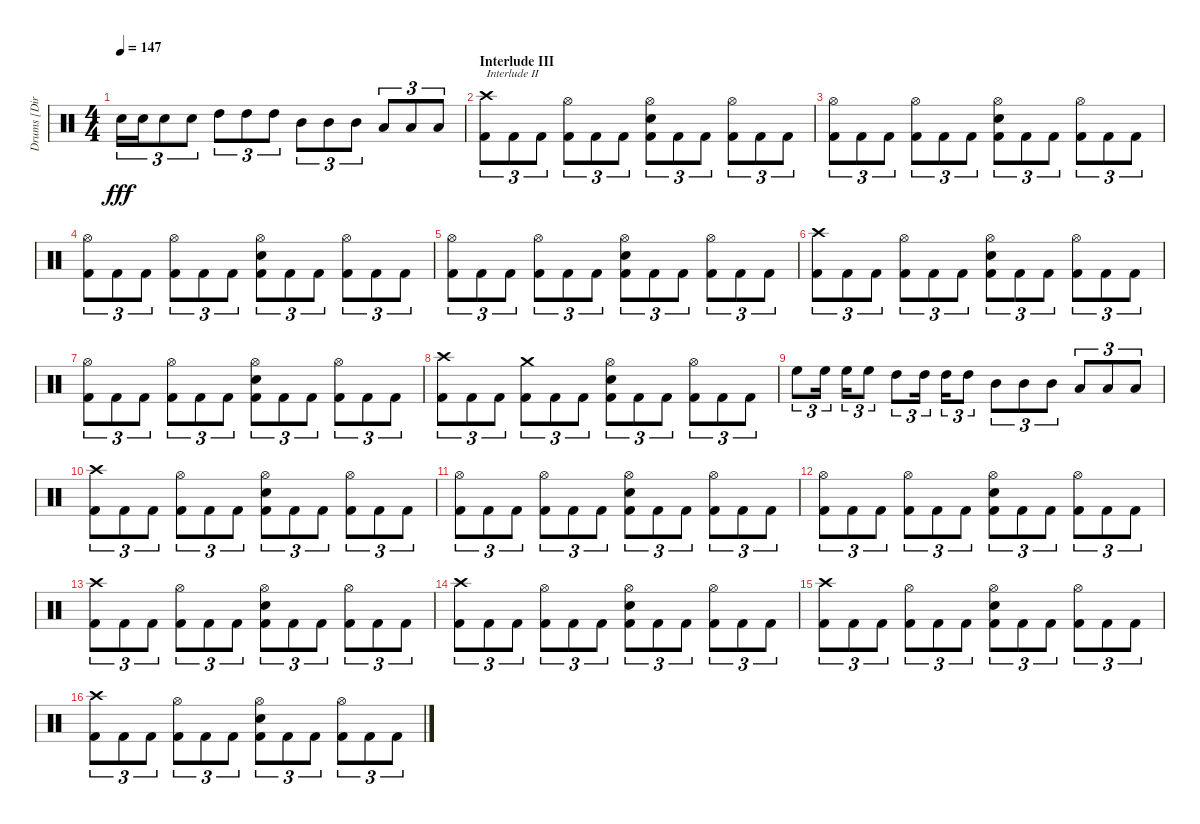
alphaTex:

\track ("Drums [Dirge Rep]" "Drums [Dir") {instrument percussion}
\staff {score}
\articulation defaults
\ts (4 4)
\tempo 147
\clef neutral
\ks c "Electric Snare (hit)".16{tu (3 2) dy fff} "Electric Snare (hit)".16{tu (3 2)} "Electric Snare (hit)".8{tu (3 2)} "Electric Snare (hit)".8{tu (3 2)} "High Tom (hit)".8{tu (3 2)} "High Tom (hit)".8{tu (3 2)} "High Tom (hit)".8{tu (3 2)} "Mid Tom (hit)".8{tu (3 2)} "Mid Tom (hit)".8{tu (3 2)} "Mid Tom (hit)".8{tu (3 2)} "Low Tom (hit)".8{tu (3 2)} "Low Tom (hit)".8{tu (3 2)} "Low Tom (hit)".8{tu (3 2)}
|
\section ("" "Interlude III")
("Crash high (hit)" "Kick (hit) 2").8{tu (3 2) txt "Interlude II"} "Kick (hit) 2".8{tu (3 2)} "Kick (hit) 2".8{tu (3 2)} ("Hi-Hat (open)" "Kick (hit) 2").8{tu (3 2)} "Kick (hit) 2".8{tu (3 2)} "Kick (hit) 2".8{tu (3 2)} ("Hi-Hat (open)" "Electric Snare (hit)" "Kick (hit) 2").8{tu (3 2)} "Kick (hit) 2".8{tu (3 2)} "Kick (hit) 2".8{tu (3 2)} ("Hi-Hat (open)" "Kick (hit) 2").8{tu (3 2)} "Kick (hit) 2".8{tu (3 2)} "Kick (hit) 2".8{tu (3 2)} |
("Hi-Hat (open)" "Kick (hit) 2").8{tu (3 2)} "Kick (hit) 2".8{tu (3 2)} "Kick (hit) 2".8{tu (3 2)} ("Hi-Hat (open)" "Kick (hit) 2").8{tu (3 2)} "Kick (hit) 2".8{tu (3 2)} "Kick (hit) 2".8{tu (3 2)} ("Hi-Hat (open)" "Electric Snare (hit)" "Kick (hit) 2").8{tu (3 2)} "Kick (hit) 2".8{tu (3 2)} "Kick (hit) 2".8{tu (3 2)} ("Hi-Hat (open)" "Kick (hit) 2").8{tu (3 2)} "Kick (hit) 2".8{tu (3 2)} "Kick (hit) 2".8{tu (3 2)} |
("Hi-Hat (open)" "Kick (hit) 2").8{tu (3 2)} "Kick (hit) 2".8{tu (3 2)} "Kick (hit) 2".8{tu (3 2)} ("Hi-Hat (open)" "Kick (hit) 2").8{tu (3 2)} "Kick (hit) 2".8{tu (3 2)} "Kick (hit) 2".8{tu (3 2)} ("Hi-Hat (open)" "Electric Snare (hit)" "Kick (hit) 2").8{tu (3 2)} "Kick (hit) 2".8{tu (3 2)} "Kick (hit) 2".8{tu (3 2)} ("Hi-Hat (open)" "Kick (hit) 2").8{tu (3 2)} "Kick (hit) 2".8{tu (3 2)} "Kick (hit) 2".8{tu (3 2)} |
("Hi-Hat (open)" "Kick (hit) 2").8{tu (3 2)} "Kick (hit) 2".8{tu (3 2)} "Kick (hit) 2".8{tu (3 2)} ("Hi-Hat (open)" "Kick (hit) 2").8{tu (3 2)} "Kick (hit) 2".8{tu (3 2)} "Kick (hit) 2".8{tu (3 2)} ("Hi-Hat (open)" "Electric Snare (hit)" "Kick (hit) 2").8{tu (3 2)} "Kick (hit) 2".8{tu (3 2)} "Kick (hit) 2".8{tu (3 2)} ("Hi-Hat (open)" "Kick (hit) 2").8{tu (3 2)} "Kick (hit) 2".8{tu (3 2)} "Kick (hit) 2".8{tu (3 2)} |
("Crash high (hit)" "Kick (hit) 2").8{tu (3 2)} "Kick (hit) 2".8{tu (3 2)} "Kick (hit) 2".8{tu (3 2)} ("Hi-Hat (open)" "Kick (hit) 2").8{tu (3 2)} "Kick (hit) 2".8{tu (3 2)} "Kick (hit) 2".8{tu (3 2)} ("Hi-Hat (open)" "Electric Snare (hit)" "Kick (hit) 2").8{tu (3 2)} "Kick (hit) 2".8{tu (3 2)} "Kick (hit) 2".8{tu (3 2)} ("Hi-Hat (open)" "Kick (hit) 2").8{tu (3 2)} "Kick (hit) 2".8{tu (3 2)} "Kick (hit) 2".8{tu (3 2)} |
("Hi-Hat (open)" "Kick (hit) 2").8{tu (3 2)} "Kick (hit) 2".8{tu (3 2)} "Kick (hit) 2".8{tu (3 2)} ("Hi-Hat (open)" "Kick (hit) 2").8{tu (3 2)} "Kick (hit) 2".8{tu (3 2)} "Kick (hit) 2".8{tu (3 2)} ("Hi-Hat (open)" "Electric Snare (hit)" "Kick (hit) 2").8{tu (3 2)} "Kick (hit) 2".8{tu (3 2)} "Kick (hit) 2".8{tu (3 2)} ("Hi-Hat (open)" "Kick (hit) 2").8{tu (3 2)} "Kick (hit) 2".8{tu (3 2)} "Kick (hit) 2".8{tu (3 2)} |
("Crash high (hit)" "Kick (hit) 2").8{tu (3 2)} "Kick (hit) 2".8{tu (3 2)} "Kick (hit) 2".8{tu (3 2)} ("Crash medium (hit)" "Kick (hit) 2").8{tu (3 2)} "Kick (hit) 2".8{tu (3 2)} "Kick (hit) 2".8{tu (3 2)} ("Hi-Hat (open)" "Electric Snare (hit)" "Kick (hit) 2").8{tu (3 2)} "Kick (hit) 2".8{tu (3 2)} "Kick (hit) 2".8{tu (3 2)} ("Hi-Hat (open)" "Kick (hit) 2").8{tu (3 2)} "Kick (hit) 2".8{tu (3 2)} "Kick (hit) 2".8{tu (3 2)} |
"High Floor Tom (hit)".8{tu (3 2)} "High Floor Tom (hit)".16{tu (3 2)} "High Floor Tom (hit)".16{tu (3 2)} "High Floor Tom (hit)".8{tu (3 2)} "High Tom (hit)".8{tu (3 2)} "High Tom (hit)".16{tu (3 2)} "High Tom (hit)".16{tu (3 2)} "High Tom (hit)".8{tu (3 2)} "Mid Tom (hit)".8{tu (3 2)} "Mid Tom (hit)".8{tu (3 2)} "Mid Tom (hit)".8{tu (3 2)} "Low Tom (hit)".8{tu (3 2)} "Low Tom (hit)".8{tu (3 2)} "Low Tom (hit)".8{tu (3 2)} |
("Crash high (hit)" "Kick (hit) 2").8{tu (3 2)} "Kick (hit) 2".8{tu (3 2)} "Kick (hit) 2".8{tu (3 2)} ("Hi-Hat (open)" "Kick (hit) 2").8{tu (3 2)} "Kick (hit) 2".8{tu (3 2)} "Kick (hit) 2".8{tu (3 2)} ("Hi-Hat (open)" "Electric Snare (hit)" "Kick (hit) 2").8{tu (3 2)} "Kick (hit) 2".8{tu (3 2)} "Kick (hit) 2".8{tu (3 2)} ("Hi-Hat (open)" "Kick (hit) 2").8{tu (3 2)} "Kick (hit) 2".8{tu (3 2)} "Kick (hit) 2".8{tu (3 2)} |
("Hi-Hat (open)" "Kick (hit) 2").8{tu (3 2)} "Kick (hit) 2".8{tu (3 2)} "Kick (hit) 2".8{tu (3 2)} ("Hi-Hat (open)" "Kick (hit) 2").8{tu (3 2)} "Kick (hit) 2".8{tu (3 2)} "Kick (hit) 2".8{tu (3 2)} ("Hi-Hat (open)" "Electric Snare (hit)" "Kick (hit) 2").8{tu (3 2)} "Kick (hit) 2".8{tu (3 2)} "Kick (hit) 2".8{tu (3 2)} ("Hi-Hat (open)" "Kick (hit) 2").8{tu (3 2)} "Kick (hit) 2".8{tu (3 2)} "Kick (hit) 2".8{tu (3 2)} |
("Hi-Hat (open)" "Kick (hit) 2").8{tu (3 2)} "Kick (hit) 2".8{tu (3 2)} "Kick (hit) 2".8{tu (3 2)} ("Hi-Hat (open)" "Kick (hit) 2").8{tu (3 2)} "Kick (hit) 2".8{tu (3 2)} "Kick (hit) 2".8{tu (3 2)} ("Hi-Hat (open)" "Electric Snare (hit)" "Kick (hit) 2").8{tu (3 2)} "Kick (hit) 2".8{tu (3 2)} "Kick (hit) 2".8{tu (3 2)} ("Hi-Hat (open)" "Kick (hit) 2").8{tu (3 2)} "Kick (hit) 2".8{tu (3 2)} "Kick (hit) 2".8{tu (3 2)} |
("Crash high (hit)" "Kick (hit) 2").8{tu (3 2)} "Kick (hit) 2".8{tu (3 2)} "Kick (hit) 2".8{tu (3 2)} ("Hi-Hat (open)" "Kick (hit) 2").8{tu (3 2)} "Kick (hit) 2".8{tu (3 2)} "Kick (hit) 2".8{tu (3 2)} ("Hi-Hat (open)" "Electric Snare (hit)" "Kick (hit) 2").8{tu (3 2)} "Kick (hit) 2".8{tu (3 2)} "Kick (hit) 2".8{tu (3 2)} ("Hi-Hat (open)" "Kick (hit) 2").8{tu (3 2)} "Kick (hit) 2".8{tu (3 2)} "Kick (hit) 2".8{tu (3 2)} |
("Crash high (hit)" "Kick (hit) 2").8{tu (3 2)} "Kick (hit) 2".8{tu (3 2)} "Kick (hit) 2".8{tu (3 2)} ("Hi-Hat (open)" "Kick (hit) 2").8{tu (3 2)} "Kick (hit) 2".8{tu (3 2)} "Kick (hit) 2".8{tu (3 2)} ("Hi-Hat (open)" "Electric Snare (hit)" "Kick (hit) 2").8{tu (3 2)} "Kick (hit) 2".8{tu (3 2)} "Kick (hit) 2".8{tu (3 2)} ("Hi-Hat (open)" "Kick (hit) 2").8{tu (3 2)} "Kick (hit) 2".8{tu (3 2)} "Kick (hit) 2".8{tu (3 2)} |
("Crash high (hit)" "Kick (hit) 2").8{tu (3 2)} "Kick (hit) 2".8{tu (3 2)} "Kick (hit) 2".8{tu (3 2)} ("Hi-Hat (open)" "Kick (hit) 2").8{tu (3 2)} "Kick (hit) 2".8{tu (3 2)} "Kick (hit) 2".8{tu (3 2)} ("Hi-Hat (open)" "Electric Snare (hit)" "Kick (hit) 2").8{tu (3 2)} "Kick (hit) 2".8{tu (3 2)} "Kick (hit) 2".8{tu (3 2)} ("Hi-Hat (open)" "Kick (hit) 2").8{tu (3 2)} "Kick (hit) 2".8{tu (3 2)} "Kick (hit) 2".8{tu (3 2)} |
("Crash high (hit)" "Kick (hit) 2").8{tu (3 2)} "Kick (hit) 2".8{tu (3 2)} "Kick (hit) 2".8{tu (3 2)} ("Hi-Hat (open)" "Kick (hit) 2").8{tu (3 2)} "Kick (hit) 2".8{tu (3 2)} "Kick (hit) 2".8{tu (3 2)} ("Hi-Hat (open)" "Electric Snare (hit)" "Kick (hit) 2").8{tu (3 2)} "Kick (hit) 2".8{tu (3 2)} "Kick (hit) 2".8{tu (3 2)} ("Hi-Hat (open)" "Kick (hit) 2").8{tu (3 2)} "Kick (hit) 2".8{tu (3 2)} "Kick (hit) 2".8{tu (3 2)}
